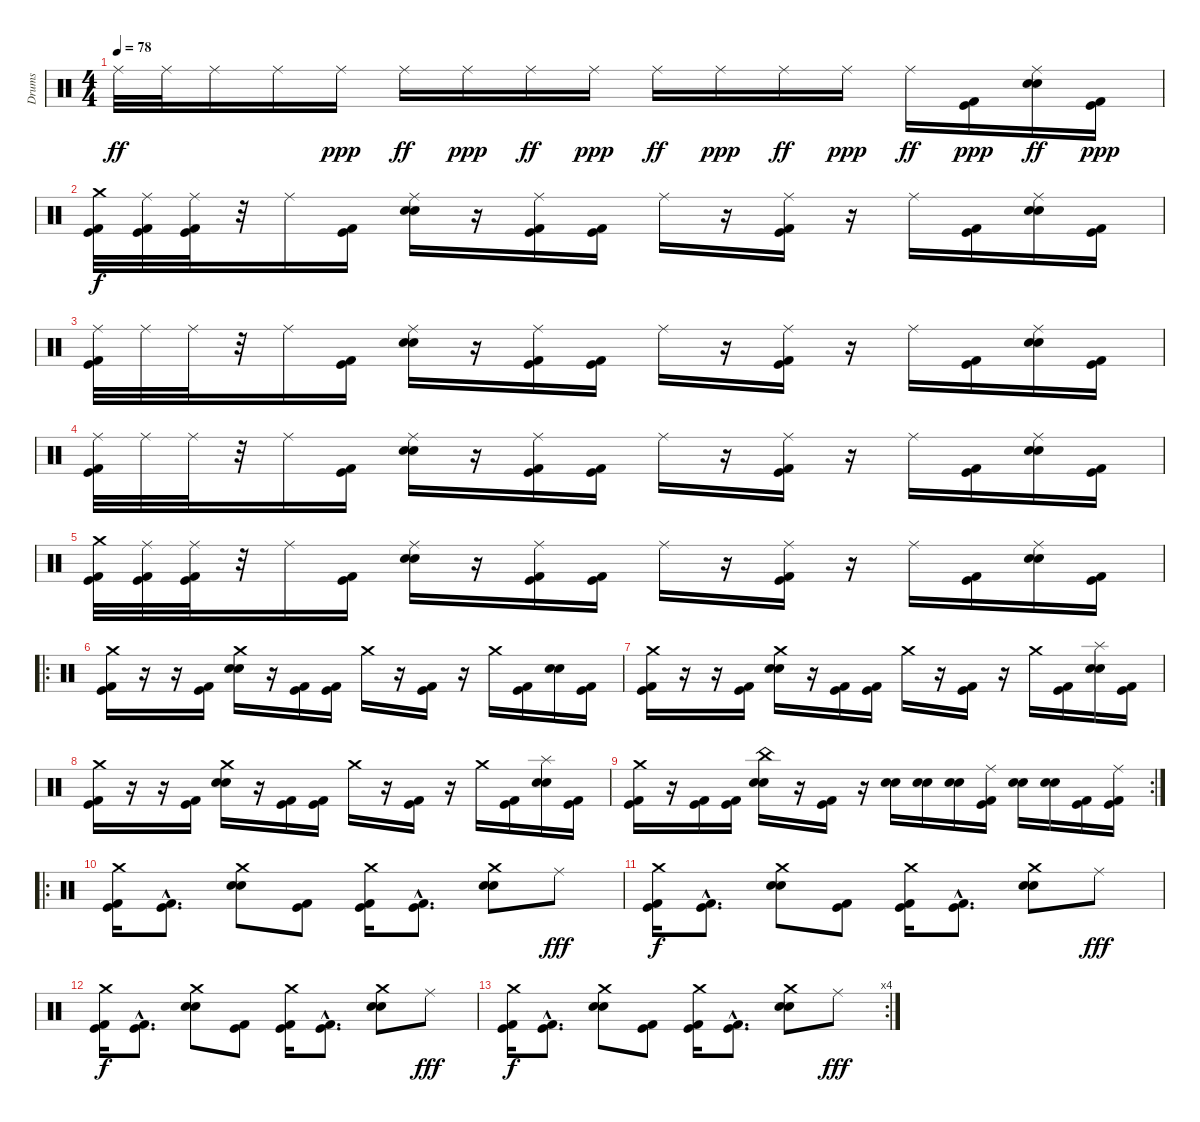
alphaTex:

\track ("Drums" "Drums") {instrument percussion}
\staff {score}
\articulation defaults
\ts (4 4)
\tempo 78
\clef neutral
\ks c "Ride (middle)".32{dy ff} "Ride (middle)".32 "Ride (middle)".16 "Ride (middle)".16 "Ride (middle)".16{dy ppp} "Ride (middle)".16{dy ff} "Ride (middle)".16{dy ppp} "Ride (middle)".16{dy ff} "Ride (middle)".16{dy ppp} "Ride (middle)".16{dy ff} "Ride (middle)".16{dy ppp} "Ride (middle)".16{dy ff} "Ride (middle)".16{dy ppp} "Ride (middle)".16{dy ff}
("Kick (hit) 2" "Kick (hit)").16{dy ppp} ("Ride (middle)" "Snare (hit) 2" "Snare (hit) 2").16{dy ff} ("Kick (hit) 2" "Kick (hit)").16{dy ppp} |
("Crash medium (hit)" "Kick (hit)" "Kick (hit) 2").32{dy f} ("Ride (middle)" "Kick (hit)" "Kick (hit) 2").32 ("Ride (middle)" "Kick (hit)" "Kick (hit) 2").32 r.32 "Ride (middle)".16 ("Kick (hit)" "Kick (hit) 2").16 ("Ride (middle)" "Snare (hit) 2" "Snare (hit) 2").16 r.16 ("Ride (middle)" "Kick (hit)" "Kick (hit) 2").16 ("Kick (hit)" "Kick (hit) 2").16 "Ride (middle)".16 r.16 ("Ride (middle)" "Kick (hit)" "Kick (hit) 2").16 r.16 "Ride (middle)".16 ("Kick (hit)" "Kick (hit) 2").16 ("Ride (middle)" "Snare (hit) 2" "Snare (hit) 2").16 ("Kick (hit)" "Kick (hit) 2").16 |
("Ride (middle)" "Kick (hit)" "Kick (hit) 2").32 "Ride (middle)".32 "Ride (middle)".32 r.32 "Ride (middle)".16 ("Kick (hit)" "Kick (hit) 2").16 ("Ride (middle)" "Snare (hit) 2" "Snare (hit) 2").16 r.16 ("Ride (middle)" "Kick (hit)" "Kick (hit) 2").16 ("Kick (hit)" "Kick (hit) 2").16 "Ride (middle)".16 r.16 ("Ride (middle)" "Kick (hit)" "Kick (hit) 2").16 r.16 "Ride (middle)".16 ("Kick (hit)" "Kick (hit) 2").16 ("Ride (middle)" "Snare (hit) 2" "Snare (hit) 2").16 ("Kick (hit)" "Kick (hit) 2").16 |
("Ride (middle)" "Kick (hit)" "Kick (hit) 2").32 "Ride (middle)".32 "Ride (middle)".32 r.32 "Ride (middle)".16 ("Kick (hit)" "Kick (hit) 2").16 ("Ride (middle)" "Snare (hit) 2" "Snare (hit) 2").16 r.16 ("Ride (middle)" "Kick (hit)" "Kick (hit) 2").16 ("Kick (hit)" "Kick (hit) 2").16 "Ride (middle)".16 r.16 ("Ride (middle)" "Kick (hit)" "Kick (hit) 2").16 r.16 "Ride (middle)".16 ("Kick (hit)" "Kick (hit) 2").16 ("Ride (middle)" "Snare (hit) 2" "Snare (hit) 2").16 ("Kick (hit)" "Kick (hit) 2").16 |
("Crash medium (hit)" "Kick (hit)" "Kick (hit) 2").32 ("Ride (middle)" "Kick (hit)" "Kick (hit) 2").32 ("Ride (middle)" "Kick (hit)" "Kick (hit) 2").32 r.32 "Ride (middle)".16 ("Kick (hit)" "Kick (hit) 2").16 ("Ride (middle)" "Snare (hit) 2" "Snare (hit) 2").16 r.16 ("Ride (middle)" "Kick (hit)" "Kick (hit) 2").16 ("Kick (hit)" "Kick (hit) 2").16 "Ride (middle)".16 r.16 ("Ride (middle)" "Kick (hit)" "Kick (hit) 2").16 r.16 "Ride (middle)".16 ("Kick (hit)" "Kick (hit) 2").16 ("Ride (middle)" "Snare (hit) 2" "Snare (hit) 2").16 ("Kick (hit)" "Kick (hit) 2").16 |
\ro
("Crash medium (hit)" "Kick (hit)" "Kick (hit) 2").16 r.16 r.16 ("Kick (hit)" "Kick (hit) 2").16 ("Crash medium (hit)" "Snare (hit) 2" "Snare (hit) 2").16 r.16 ("Kick (hit)" "Kick (hit) 2").16 ("Kick (hit)" "Kick (hit) 2").16 "Crash medium (hit)".16 r.16 ("Kick (hit)" "Kick (hit) 2").16 r.16 "Crash medium (hit)".16 ("Kick (hit)" "Kick (hit) 2").16 ("Snare (hit) 2" "Snare (hit) 2").16 ("Kick (hit)" "Kick (hit) 2").16 |
("Crash medium (hit)" "Kick (hit)" "Kick (hit) 2").16 r.16 r.16 ("Kick (hit)" "Kick (hit) 2").16 ("Crash medium (hit)" "Snare (hit) 2" "Snare (hit) 2").16 r.16 ("Kick (hit)" "Kick (hit) 2").16 ("Kick (hit)" "Kick (hit) 2").16 "Crash medium (hit)".16 r.16 ("Kick (hit)" "Kick (hit) 2").16 r.16 "Crash medium (hit)".16 ("Kick (hit)" "Kick (hit) 2").16 ("Splash (hit)" "Snare (hit) 2" "Snare (hit) 2").16 ("Kick (hit)" "Kick (hit) 2").16 |
("Crash medium (hit)" "Kick (hit)" "Kick (hit) 2").16 r.16 r.16 ("Kick (hit)" "Kick (hit) 2").16 ("Crash medium (hit)" "Snare (hit) 2" "Snare (hit) 2").16 r.16 ("Kick (hit)" "Kick (hit) 2").16 ("Kick (hit)" "Kick (hit) 2").16 "Crash medium (hit)".16 r.16 ("Kick (hit)" "Kick (hit) 2").16 r.16 "Crash medium (hit)".16 ("Kick (hit)" "Kick (hit) 2").16 ("Splash (hit)" "Snare (hit) 2" "Snare (hit) 2").16 ("Kick (hit)" "Kick (hit) 2").16 |
\rc 2
("Crash medium (hit)" "Kick (hit)" "Kick (hit) 2").16 r.16 ("Kick (hit)" "Kick (hit) 2").16 ("Kick (hit)" "Kick (hit) 2").16 ("China (hit)" "Snare (hit) 2" "Snare (hit) 2").16 r.16 ("Kick (hit) 2" "Kick (hit)").16 r.16 ("Snare (hit) 2" "Snare (hit) 2").16 ("Snare (hit) 2" "Snare (hit) 2").16 ("Snare (hit) 2" "Snare (hit) 2").16 ("Ride (middle)" "Kick (hit) 2" "Kick (hit)").16 ("Snare (hit) 2" "Snare (hit) 2").16 ("Snare (hit) 2" "Snare (hit) 2").16 ("Kick (hit) 2" "Kick (hit)").16 ("Ride (middle)" "Kick (hit) 2" "Kick (hit)").16 |
\ro
("Crash medium (hit)" "Kick (hit) 2" "Kick (hit)").16 ("Kick (hit) 2"{hac} "Kick (hit)"{hac}).8{d} ("Crash medium (hit)" "Snare (hit) 2" "Snare (hit) 2").8 ("Kick (hit) 2" "Kick (hit)").8 ("Crash medium (hit)" "Kick (hit) 2" "Kick (hit)").16 ("Kick (hit) 2"{hac} "Kick (hit)"{hac}).8{d} ("Crash medium (hit)" "Snare (hit) 2" "Snare (hit) 2").8 "Ride (middle)".8{dy fff} |
("Crash medium (hit)" "Kick (hit) 2" "Kick (hit)").16{dy f} ("Kick (hit) 2"{hac} "Kick (hit)"{hac}).8{d} ("Crash medium (hit)" "Snare (hit) 2" "Snare (hit) 2").8 ("Kick (hit) 2" "Kick (hit)").8 ("Crash medium (hit)" "Kick (hit) 2" "Kick (hit)").16 ("Kick (hit) 2"{hac} "Kick (hit)"{hac}).8{d} ("Crash medium (hit)" "Snare (hit) 2" "Snare (hit) 2").8 "Ride (middle)".8{dy fff} |
("Crash medium (hit)" "Kick (hit) 2" "Kick (hit)").16{dy f} ("Kick (hit) 2"{hac} "Kick (hit)"{hac}).8{d} ("Crash medium (hit)" "Snare (hit) 2" "Snare (hit) 2").8 ("Kick (hit) 2" "Kick (hit)").8 ("Crash medium (hit)" "Kick (hit) 2" "Kick (hit)").16 ("Kick (hit) 2"{hac} "Kick (hit)"{hac}).8{d} ("Crash medium (hit)" "Snare (hit) 2" "Snare (hit) 2").8 "Ride (middle)".8{dy fff} |
\rc 4
("Crash medium (hit)" "Kick (hit) 2" "Kick (hit)").16{dy f} ("Kick (hit) 2"{hac} "Kick (hit)"{hac}).8{d} ("Crash medium (hit)" "Snare (hit) 2" "Snare (hit) 2").8 ("Kick (hit) 2" "Kick (hit)").8 ("Crash medium (hit)" "Kick (hit) 2" "Kick (hit)").16 ("Kick (hit) 2"{hac} "Kick (hit)"{hac}).8{d} ("Crash medium (hit)" "Snare (hit) 2" "Snare (hit) 2").8 "Ride (middle)".8{dy fff}
